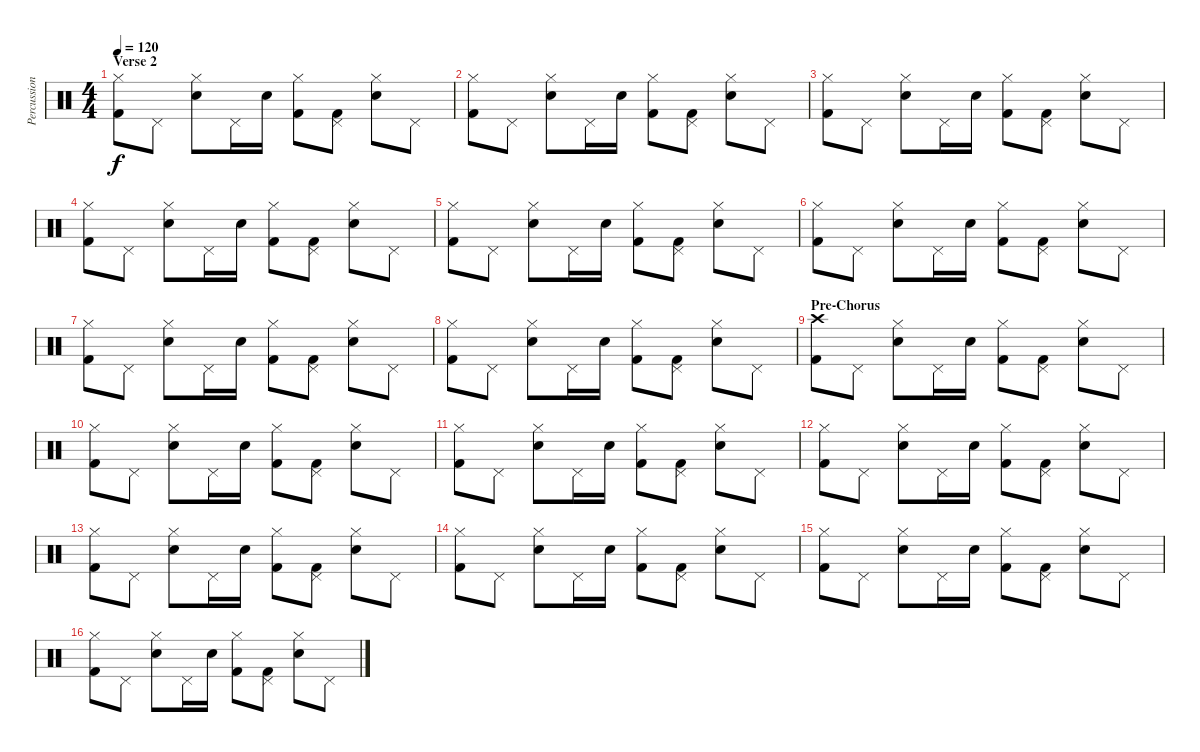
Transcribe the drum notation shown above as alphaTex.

\track ("Percussion" "Percussion") {instrument percussion}
\staff {score}
\articulation defaults
\ts (4 4)
\section ("" "Verse 2")
\tempo 120
\clef neutral
\ks c
("Kick (hit) 2" "Hi-Hat (closed)").8{dy f} "Pedal Hi-Hat (hit)".8 ("Electric Snare (hit)" "Hi-Hat (closed)").8 "Pedal Hi-Hat (hit)".16 "Electric Snare (hit)".16 ("Kick (hit) 2" "Hi-Hat (closed)").8 ("Kick (hit) 2" "Pedal Hi-Hat (hit)").8 ("Electric Snare (hit)" "Hi-Hat (closed)").8 "Pedal Hi-Hat (hit)".8 |
("Kick (hit) 2" "Hi-Hat (closed)").8 "Pedal Hi-Hat (hit)".8 ("Electric Snare (hit)" "Hi-Hat (closed)").8 "Pedal Hi-Hat (hit)".16 "Electric Snare (hit)".16 ("Kick (hit) 2" "Hi-Hat (closed)").8 ("Kick (hit) 2" "Pedal Hi-Hat (hit)").8 ("Electric Snare (hit)" "Hi-Hat (closed)").8 "Pedal Hi-Hat (hit)".8 |
("Kick (hit) 2" "Hi-Hat (closed)").8 "Pedal Hi-Hat (hit)".8 ("Electric Snare (hit)" "Hi-Hat (closed)").8 "Pedal Hi-Hat (hit)".16 "Electric Snare (hit)".16 ("Kick (hit) 2" "Hi-Hat (closed)").8 ("Kick (hit) 2" "Pedal Hi-Hat (hit)").8 ("Electric Snare (hit)" "Hi-Hat (closed)").8 "Pedal Hi-Hat (hit)".8 |
("Kick (hit) 2" "Hi-Hat (closed)").8 "Pedal Hi-Hat (hit)".8 ("Electric Snare (hit)" "Hi-Hat (closed)").8 "Pedal Hi-Hat (hit)".16 "Electric Snare (hit)".16 ("Kick (hit) 2" "Hi-Hat (closed)").8 ("Kick (hit) 2" "Pedal Hi-Hat (hit)").8 ("Electric Snare (hit)" "Hi-Hat (closed)").8 "Pedal Hi-Hat (hit)".8 |
("Kick (hit) 2" "Hi-Hat (closed)").8 "Pedal Hi-Hat (hit)".8 ("Electric Snare (hit)" "Hi-Hat (closed)").8 "Pedal Hi-Hat (hit)".16 "Electric Snare (hit)".16 ("Kick (hit) 2" "Hi-Hat (closed)").8 ("Kick (hit) 2" "Pedal Hi-Hat (hit)").8 ("Electric Snare (hit)" "Hi-Hat (closed)").8 "Pedal Hi-Hat (hit)".8 |
("Kick (hit) 2" "Hi-Hat (closed)").8 "Pedal Hi-Hat (hit)".8 ("Electric Snare (hit)" "Hi-Hat (closed)").8 "Pedal Hi-Hat (hit)".16 "Electric Snare (hit)".16 ("Kick (hit) 2" "Hi-Hat (closed)").8 ("Kick (hit) 2" "Pedal Hi-Hat (hit)").8 ("Electric Snare (hit)" "Hi-Hat (closed)").8 "Pedal Hi-Hat (hit)".8 |
("Kick (hit) 2" "Hi-Hat (closed)").8 "Pedal Hi-Hat (hit)".8 ("Electric Snare (hit)" "Hi-Hat (closed)").8 "Pedal Hi-Hat (hit)".16 "Electric Snare (hit)".16 ("Kick (hit) 2" "Hi-Hat (closed)").8 ("Kick (hit) 2" "Pedal Hi-Hat (hit)").8 ("Electric Snare (hit)" "Hi-Hat (closed)").8 "Pedal Hi-Hat (hit)".8 |
("Kick (hit) 2" "Hi-Hat (closed)").8 "Pedal Hi-Hat (hit)".8 ("Electric Snare (hit)" "Hi-Hat (closed)").8 "Pedal Hi-Hat (hit)".16 "Electric Snare (hit)".16 ("Kick (hit) 2" "Hi-Hat (closed)").8 ("Kick (hit) 2" "Pedal Hi-Hat (hit)").8 ("Electric Snare (hit)" "Hi-Hat (closed)").8 "Pedal Hi-Hat (hit)".8 |
\section ("" "Pre-Chorus")
("Kick (hit) 2" "Crash high (hit)").8 "Pedal Hi-Hat (hit)".8 ("Electric Snare (hit)" "Hi-Hat (closed)").8 "Pedal Hi-Hat (hit)".16 "Electric Snare (hit)".16 ("Kick (hit) 2" "Hi-Hat (closed)").8 ("Kick (hit) 2" "Pedal Hi-Hat (hit)").8 ("Electric Snare (hit)" "Hi-Hat (closed)").8 "Pedal Hi-Hat (hit)".8 |
("Kick (hit) 2" "Hi-Hat (closed)").8 "Pedal Hi-Hat (hit)".8 ("Electric Snare (hit)" "Hi-Hat (closed)").8 "Pedal Hi-Hat (hit)".16 "Electric Snare (hit)".16 ("Kick (hit) 2" "Hi-Hat (closed)").8 ("Kick (hit) 2" "Pedal Hi-Hat (hit)").8 ("Electric Snare (hit)" "Hi-Hat (closed)").8 "Pedal Hi-Hat (hit)".8 |
("Kick (hit) 2" "Hi-Hat (closed)").8 "Pedal Hi-Hat (hit)".8 ("Electric Snare (hit)" "Hi-Hat (closed)").8 "Pedal Hi-Hat (hit)".16 "Electric Snare (hit)".16 ("Kick (hit) 2" "Hi-Hat (closed)").8 ("Kick (hit) 2" "Pedal Hi-Hat (hit)").8 ("Electric Snare (hit)" "Hi-Hat (closed)").8 "Pedal Hi-Hat (hit)".8 |
("Kick (hit) 2" "Hi-Hat (closed)").8 "Pedal Hi-Hat (hit)".8 ("Electric Snare (hit)" "Hi-Hat (closed)").8 "Pedal Hi-Hat (hit)".16 "Electric Snare (hit)".16 ("Kick (hit) 2" "Hi-Hat (closed)").8 ("Kick (hit) 2" "Pedal Hi-Hat (hit)").8 ("Electric Snare (hit)" "Hi-Hat (closed)").8 "Pedal Hi-Hat (hit)".8 |
("Kick (hit) 2" "Hi-Hat (closed)").8 "Pedal Hi-Hat (hit)".8 ("Electric Snare (hit)" "Hi-Hat (closed)").8 "Pedal Hi-Hat (hit)".16 "Electric Snare (hit)".16 ("Kick (hit) 2" "Hi-Hat (closed)").8 ("Kick (hit) 2" "Pedal Hi-Hat (hit)").8 ("Electric Snare (hit)" "Hi-Hat (closed)").8 "Pedal Hi-Hat (hit)".8 |
("Kick (hit) 2" "Hi-Hat (closed)").8 "Pedal Hi-Hat (hit)".8 ("Electric Snare (hit)" "Hi-Hat (closed)").8 "Pedal Hi-Hat (hit)".16 "Electric Snare (hit)".16 ("Kick (hit) 2" "Hi-Hat (closed)").8 ("Kick (hit) 2" "Pedal Hi-Hat (hit)").8 ("Electric Snare (hit)" "Hi-Hat (closed)").8 "Pedal Hi-Hat (hit)".8 |
("Kick (hit) 2" "Hi-Hat (closed)").8 "Pedal Hi-Hat (hit)".8 ("Electric Snare (hit)" "Hi-Hat (closed)").8 "Pedal Hi-Hat (hit)".16 "Electric Snare (hit)".16 ("Kick (hit) 2" "Hi-Hat (closed)").8 ("Kick (hit) 2" "Pedal Hi-Hat (hit)").8 ("Electric Snare (hit)" "Hi-Hat (closed)").8 "Pedal Hi-Hat (hit)".8 |
("Kick (hit) 2" "Hi-Hat (closed)").8 "Pedal Hi-Hat (hit)".8 ("Electric Snare (hit)" "Hi-Hat (closed)").8 "Pedal Hi-Hat (hit)".16 "Electric Snare (hit)".16 ("Kick (hit) 2" "Hi-Hat (closed)").8 ("Kick (hit) 2" "Pedal Hi-Hat (hit)").8 ("Electric Snare (hit)" "Hi-Hat (closed)").8 "Pedal Hi-Hat (hit)".8
